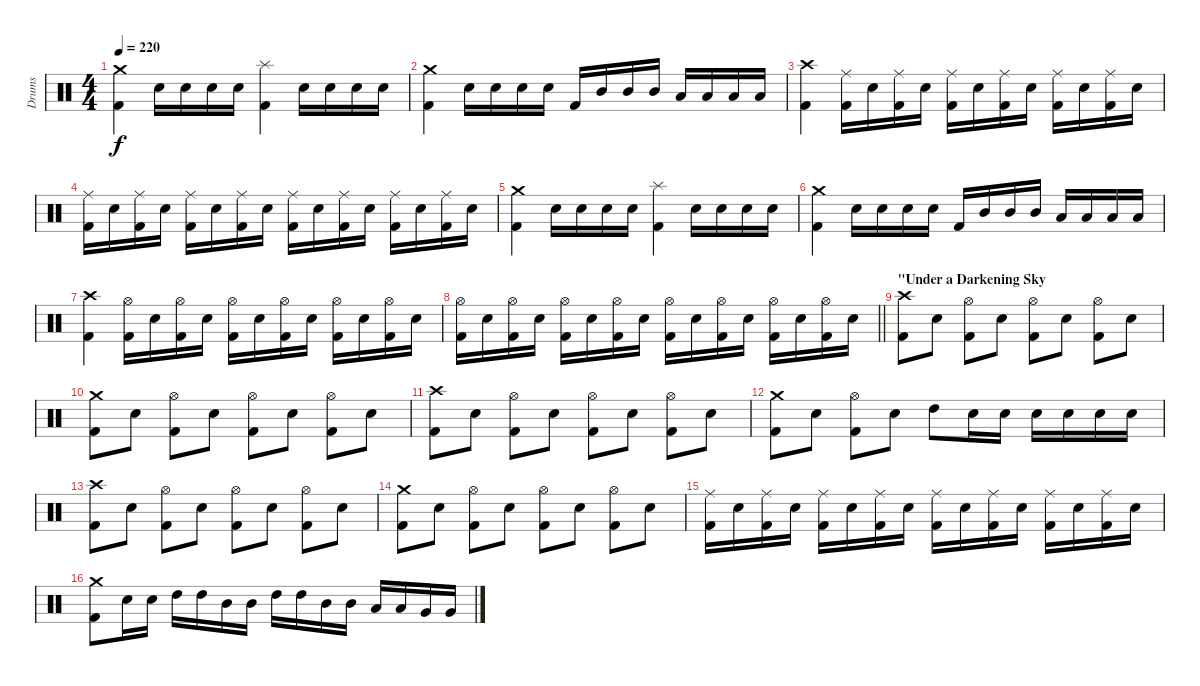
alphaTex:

\track ("Drums" "Drums") {instrument percussion}
\staff {score}
\articulation defaults
\ts (4 4)
\tempo 220
\clef neutral
\ks c
("Crash medium (hit)" "Kick (hit) 2").4{dy f} "Snare (hit) 2".16 "Snare (hit) 2".16 "Snare (hit) 2".16 "Snare (hit) 2".16 ("Splash (hit)" "Kick (hit) 2").4 "Snare (hit) 2".16 "Snare (hit) 2".16 "Snare (hit) 2".16 "Snare (hit) 2".16 |
("Crash medium (hit)" "Kick (hit) 2").4 "Snare (hit) 2".16 "Snare (hit) 2".16 "Snare (hit) 2".16 "Snare (hit) 2".16 "Kick (hit) 2".16 "Mid Tom (hit)".16 "Mid Tom (hit)".16 "Mid Tom (hit)".16 "Low Tom (hit)".16 "Low Tom (hit)".16 "Low Tom (hit)".16 "Low Tom (hit)".16 |
("Crash high (hit)" "Kick (hit) 2").4 ("Ride (middle)" "Kick (hit) 2").16 "Snare (hit) 2".16 ("Ride (middle)" "Kick (hit) 2").16 "Snare (hit) 2".16 ("Ride (middle)" "Kick (hit) 2").16 "Snare (hit) 2".16 ("Ride (middle)" "Kick (hit) 2").16 "Snare (hit) 2".16 ("Ride (middle)" "Kick (hit) 2").16 "Snare (hit) 2".16 ("Ride (middle)" "Kick (hit) 2").16 "Snare (hit) 2".16 |
("Ride (middle)" "Kick (hit) 2").16 "Snare (hit) 2".16 ("Ride (middle)" "Kick (hit) 2").16 "Snare (hit) 2".16 ("Ride (middle)" "Kick (hit) 2").16 "Snare (hit) 2".16 ("Ride (middle)" "Kick (hit) 2").16 "Snare (hit) 2".16 ("Ride (middle)" "Kick (hit) 2").16 "Snare (hit) 2".16 ("Ride (middle)" "Kick (hit) 2").16 "Snare (hit) 2".16 ("Ride (middle)" "Kick (hit) 2").16 "Snare (hit) 2".16 ("Ride (middle)" "Kick (hit) 2").16 "Snare (hit) 2".16 |
("Crash medium (hit)" "Kick (hit) 2").4 "Snare (hit) 2".16 "Snare (hit) 2".16 "Snare (hit) 2".16 "Snare (hit) 2".16 ("Splash (hit)" "Kick (hit) 2").4 "Snare (hit) 2".16 "Snare (hit) 2".16 "Snare (hit) 2".16 "Snare (hit) 2".16 |
("Crash medium (hit)" "Kick (hit) 2").4 "Snare (hit) 2".16 "Snare (hit) 2".16 "Snare (hit) 2".16 "Snare (hit) 2".16 "Kick (hit) 2".16 "Mid Tom (hit)".16 "Mid Tom (hit)".16 "Mid Tom (hit)".16 "Low Tom (hit)".16 "Low Tom (hit)".16 "Low Tom (hit)".16 "Low Tom (hit)".16 |
("Crash high (hit)" "Kick (hit) 2").4 ("Hi-Hat (open)" "Kick (hit) 2").16 "Snare (hit) 2".16 ("Hi-Hat (open)" "Kick (hit) 2").16 "Snare (hit) 2".16 ("Hi-Hat (open)" "Kick (hit) 2").16 "Snare (hit) 2".16 ("Hi-Hat (open)" "Kick (hit) 2").16 "Snare (hit) 2".16 ("Hi-Hat (open)" "Kick (hit) 2").16 "Snare (hit) 2".16 ("Hi-Hat (open)" "Kick (hit) 2").16 "Snare (hit) 2".16 |
\barLineRight lightlight
("Hi-Hat (open)" "Kick (hit) 2").16 "Snare (hit) 2".16 ("Hi-Hat (open)" "Kick (hit) 2").16 "Snare (hit) 2".16 ("Hi-Hat (open)" "Kick (hit) 2").16 "Snare (hit) 2".16 ("Hi-Hat (open)" "Kick (hit) 2").16 "Snare (hit) 2".16 ("Hi-Hat (open)" "Kick (hit) 2").16 "Snare (hit) 2".16 ("Hi-Hat (open)" "Kick (hit) 2").16 "Snare (hit) 2".16 ("Hi-Hat (open)" "Kick (hit) 2").16 "Snare (hit) 2".16 ("Hi-Hat (open)" "Kick (hit) 2").16 "Snare (hit) 2".16 |
\section ("" "\"Under a Darkening Sky")
("Crash high (hit)" "Kick (hit) 2").8 "Snare (hit) 2".8 ("Hi-Hat (open)" "Kick (hit) 2").8 "Snare (hit) 2".8 ("Hi-Hat (open)" "Kick (hit) 2").8 "Snare (hit) 2".8 ("Hi-Hat (open)" "Kick (hit) 2").8 "Snare (hit) 2".8 |
("Crash medium (hit)" "Kick (hit) 2").8 "Snare (hit) 2".8 ("Hi-Hat (open)" "Kick (hit) 2").8 "Snare (hit) 2".8 ("Hi-Hat (open)" "Kick (hit) 2").8 "Snare (hit) 2".8 ("Hi-Hat (open)" "Kick (hit) 2").8 "Snare (hit) 2".8 |
("Crash high (hit)" "Kick (hit) 2").8 "Snare (hit) 2".8 ("Hi-Hat (open)" "Kick (hit) 2").8 "Snare (hit) 2".8 ("Hi-Hat (open)" "Kick (hit) 2").8 "Snare (hit) 2".8 ("Hi-Hat (open)" "Kick (hit) 2").8 "Snare (hit) 2".8 |
("Crash medium (hit)" "Kick (hit) 2").8 "Snare (hit) 2".8 ("Hi-Hat (open)" "Kick (hit) 2").8 "Snare (hit) 2".8 "High Tom (hit)".8 "Snare (hit) 2".16 "Snare (hit) 2".16 "Snare (hit) 2".16 "Snare (hit) 2".16 "Snare (hit) 2".16 "Snare (hit) 2".16 |
("Crash high (hit)" "Kick (hit) 2").8 "Snare (hit) 2".8 ("Hi-Hat (open)" "Kick (hit) 2").8 "Snare (hit) 2".8 ("Hi-Hat (open)" "Kick (hit) 2").8 "Snare (hit) 2".8 ("Hi-Hat (open)" "Kick (hit) 2").8 "Snare (hit) 2".8 |
("Crash medium (hit)" "Kick (hit) 2").8 "Snare (hit) 2".8 ("Hi-Hat (open)" "Kick (hit) 2").8 "Snare (hit) 2".8 ("Hi-Hat (open)" "Kick (hit) 2").8 "Snare (hit) 2".8 ("Hi-Hat (open)" "Kick (hit) 2").8 "Snare (hit) 2".8 |
("Ride (middle)" "Kick (hit) 2").16 "Snare (hit) 2".16 ("Ride (middle)" "Kick (hit) 2").16 "Snare (hit) 2".16 ("Ride (middle)" "Kick (hit) 2").16 "Snare (hit) 2".16 ("Ride (middle)" "Kick (hit) 2").16 "Snare (hit) 2".16 ("Ride (middle)" "Kick (hit) 2").16 "Snare (hit) 2".16 ("Ride (middle)" "Kick (hit) 2").16 "Snare (hit) 2".16 ("Ride (middle)" "Kick (hit) 2").16 "Snare (hit) 2".16 ("Ride (middle)" "Kick (hit) 2").16 "Snare (hit) 2".16 |
("Crash medium (hit)" "Kick (hit) 2").8 "Snare (hit) 2".16 "Snare (hit) 2".16 "High Tom (hit)".16 "High Tom (hit)".16 "Mid Tom (hit)".16 "Mid Tom (hit)".16 "High Tom (hit)".16 "High Tom (hit)".16 "Mid Tom (hit)".16 "Mid Tom (hit)".16 "Low Tom (hit)".16 "Low Tom (hit)".16 "Very Low Tom (hit)".16 "Very Low Tom (hit)".16
